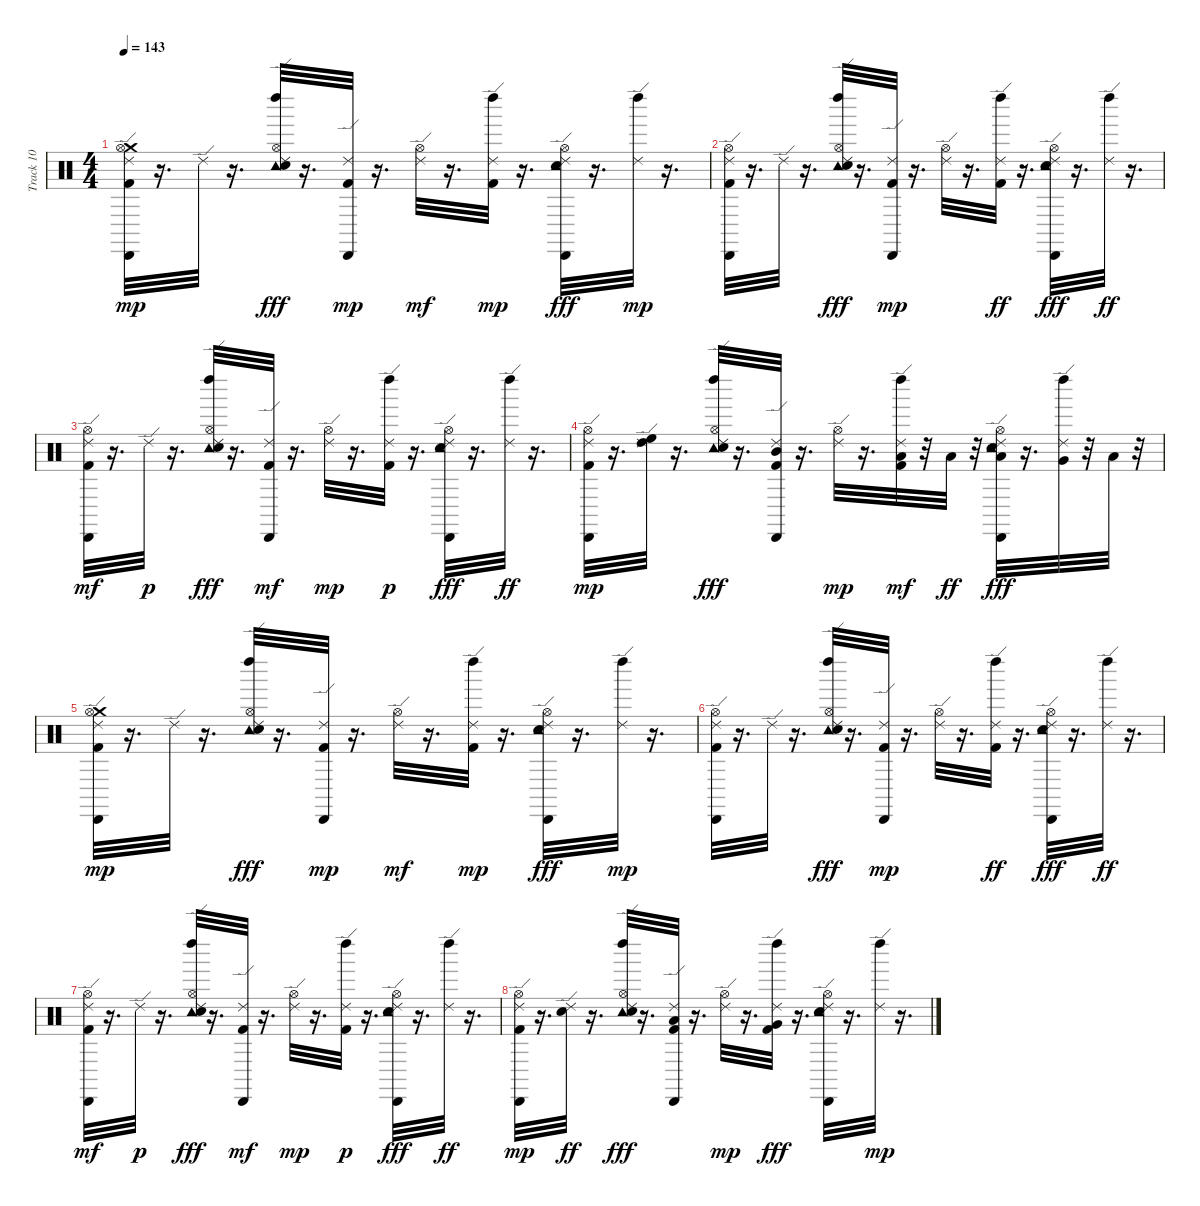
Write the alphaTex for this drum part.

\track ("Track 10" "Track 10") {instrument percussion}
\staff {score}
\articulation defaults
\ts (4 4)
\tempo 143
\clef neutral
\ks c
("Kick (hit) 2" "Crash medium (hit)" "Ride (edge) 2" "Cabasa (hit)" "Hi-Hat (open)").32{dy mp} r.16{d} "Ride (edge) 2".32 r.16{d} ("Ride (edge) 2" "Tambourine (hit)" "Left Maraca (hit)" "Hi-Hat (open)" "Snare (hit) 2").32{dy fff} r.16{d} ("Kick (hit) 2" "Ride (edge) 2" "Cabasa (hit)").32{dy mp} r.16{d} ("Ride (edge) 2" "Hi-Hat (open)").32{dy mf} r.16{d} ("Kick (hit) 2" "Ride (edge) 2" "Left Maraca (hit)").32{dy mp} r.16{d} ("Ride (edge) 2" "Tambourine (hit)" "Cabasa (hit)" "Hi-Hat (open)" "Snare (hit) 2").32{dy fff} r.16{d} ("Ride (edge) 2" "Left Maraca (hit)").32{dy mp} r.16{d} |
("Kick (hit) 2" "Ride (edge) 2" "Cabasa (hit)" "Hi-Hat (open)").32 r.16{d} "Ride (edge) 2".32 r.16{d} ("Ride (edge) 2" "Tambourine (hit)" "Left Maraca (hit)" "Hi-Hat (open)" "Snare (hit) 2").32{dy fff} r.16{d} ("Kick (hit) 2" "Ride (edge) 2" "Cabasa (hit)").32{dy mp} r.16{d} ("Ride (edge) 2" "Hi-Hat (open)").32 r.16{d} ("Kick (hit) 2" "Ride (edge) 2" "Left Maraca (hit)").32{dy ff} r.16{d} ("Ride (edge) 2" "Tambourine (hit)" "Cabasa (hit)" "Hi-Hat (open)" "Snare (hit) 2").32{dy fff} r.16{d} ("Ride (edge) 2" "Left Maraca (hit)").32{dy ff} r.16{d} |
("Kick (hit) 2" "Ride (edge) 2" "Cabasa (hit)" "Hi-Hat (open)").32{dy mf} r.16{d} "Ride (edge) 2".32{dy p} r.16{d} ("Ride (edge) 2" "Tambourine (hit)" "Left Maraca (hit)" "Hi-Hat (open)" "Snare (hit) 2").32{dy fff} r.16{d} ("Kick (hit) 2" "Ride (edge) 2" "Cabasa (hit)").32{dy mf} r.16{d} ("Ride (edge) 2" "Hi-Hat (open)").32{dy mp} r.16{d} ("Kick (hit) 2" "Ride (edge) 2" "Left Maraca (hit)").32{dy p} r.16{d} ("Ride (edge) 2" "Tambourine (hit)" "Cabasa (hit)" "Hi-Hat (open)" "Snare (hit) 2").32{dy fff} r.16{d} ("Ride (edge) 2" "Left Maraca (hit)").32{dy ff} r.16{d} |
("Kick (hit) 2" "Ride (edge) 2" "Cabasa (hit)" "Hi-Hat (open)").32{dy mp} r.16{d} ("Ride (edge) 2" "High Tom (hit)" "High Floor Tom (hit)").32 r.16{d} ("Ride (edge) 2" "Tambourine (hit)" "Left Maraca (hit)" "Hi-Hat (open)" "Snare (hit) 2").32{dy fff} r.16{d} ("Kick (hit) 2" "Ride (edge) 2" "Cabasa (hit)" "Mid Tom (hit)").32 r.16{d} ("Ride (edge) 2" "Hi-Hat (open)").32{dy mp} r.16{d} ("Kick (hit) 2" "Ride (edge) 2" "Low Tom (hit)" "Left Maraca (hit)").32{dy mf} r.32 "Low Tom (hit)".32{dy ff} r.32 ("Ride (edge) 2" "Tambourine (hit)" "Cabasa (hit)" "Hi-Hat (open)" "Snare (hit) 2" "Low Tom (hit)").32{dy fff} r.16{d} ("Ride (edge) 2" "Left Maraca (hit)" "Very Low Tom (hit)").32 r.32 "Low Floor Tom (hit)".32 r.32 |
("Kick (hit) 2" "Crash medium (hit)" "Ride (edge) 2" "Cabasa (hit)" "Hi-Hat (open)").32{dy mp} r.16{d} "Ride (edge) 2".32 r.16{d} ("Ride (edge) 2" "Tambourine (hit)" "Left Maraca (hit)" "Hi-Hat (open)" "Snare (hit) 2").32{dy fff} r.16{d} ("Kick (hit) 2" "Ride (edge) 2" "Cabasa (hit)").32{dy mp} r.16{d} ("Ride (edge) 2" "Hi-Hat (open)").32{dy mf} r.16{d} ("Kick (hit) 2" "Ride (edge) 2" "Left Maraca (hit)").32{dy mp} r.16{d} ("Ride (edge) 2" "Tambourine (hit)" "Cabasa (hit)" "Hi-Hat (open)" "Snare (hit) 2").32{dy fff} r.16{d} ("Ride (edge) 2" "Left Maraca (hit)").32{dy mp} r.16{d} |
("Kick (hit) 2" "Ride (edge) 2" "Cabasa (hit)" "Hi-Hat (open)").32 r.16{d} "Ride (edge) 2".32 r.16{d} ("Ride (edge) 2" "Tambourine (hit)" "Left Maraca (hit)" "Hi-Hat (open)" "Snare (hit) 2").32{dy fff} r.16{d} ("Kick (hit) 2" "Ride (edge) 2" "Cabasa (hit)").32{dy mp} r.16{d} ("Ride (edge) 2" "Hi-Hat (open)").32 r.16{d} ("Kick (hit) 2" "Ride (edge) 2" "Left Maraca (hit)").32{dy ff} r.16{d} ("Ride (edge) 2" "Tambourine (hit)" "Cabasa (hit)" "Hi-Hat (open)" "Snare (hit) 2").32{dy fff} r.16{d} ("Ride (edge) 2" "Left Maraca (hit)").32{dy ff} r.16{d} |
("Kick (hit) 2" "Ride (edge) 2" "Cabasa (hit)" "Hi-Hat (open)").32{dy mf} r.16{d} "Ride (edge) 2".32{dy p} r.16{d} ("Ride (edge) 2" "Tambourine (hit)" "Left Maraca (hit)" "Hi-Hat (open)" "Snare (hit) 2").32{dy fff} r.16{d} ("Kick (hit) 2" "Ride (edge) 2" "Cabasa (hit)").32{dy mf} r.16{d} ("Ride (edge) 2" "Hi-Hat (open)").32{dy mp} r.16{d} ("Kick (hit) 2" "Ride (edge) 2" "Left Maraca (hit)").32{dy p} r.16{d} ("Ride (edge) 2" "Tambourine (hit)" "Cabasa (hit)" "Hi-Hat (open)" "Snare (hit) 2").32{dy fff} r.16{d} ("Ride (edge) 2" "Left Maraca (hit)").32{dy ff} r.16{d} |
("Kick (hit) 2" "Ride (edge) 2" "Cabasa (hit)" "Hi-Hat (open)").32{dy mp} r.16{d} ("Ride (edge) 2" "Snare (hit) 2").32{dy ff} r.16{d} ("Ride (edge) 2" "Tambourine (hit)" "Left Maraca (hit)" "Hi-Hat (open)" "Snare (hit) 2").32{dy fff} r.16{d} ("Kick (hit) 2" "Ride (edge) 2" "Cabasa (hit)" "Low Tom (hit)").32 r.16{d} ("Ride (edge) 2" "Hi-Hat (open)").32{dy mp} r.16{d} ("Kick (hit) 2" "Ride (edge) 2" "Left Maraca (hit)" "Very Low Tom (hit)").32{dy fff} r.16{d} ("Ride (edge) 2" "Tambourine (hit)" "Cabasa (hit)" "Hi-Hat (open)" "Snare (hit) 2").32 r.16{d} ("Ride (edge) 2" "Left Maraca (hit)").32{dy mp} r.16{d}
